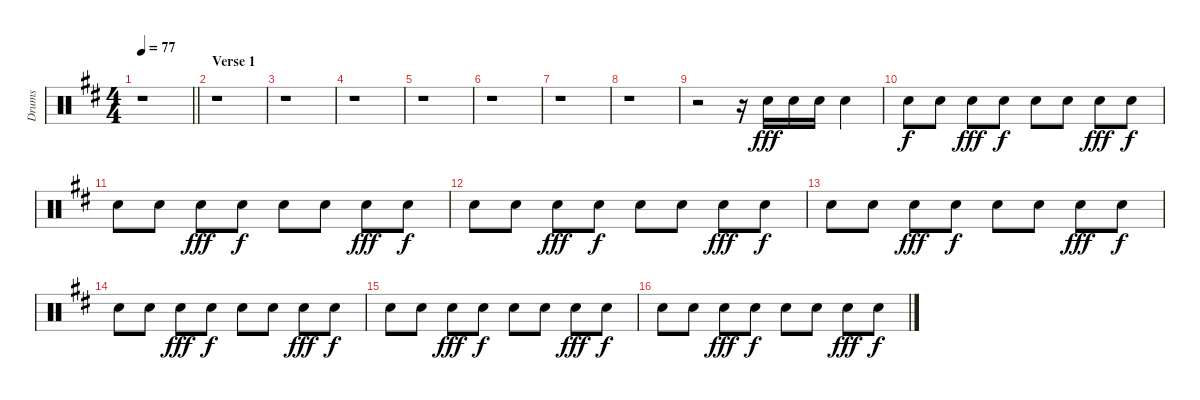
\track ("Drums" "Drums") {instrument percussion}
\staff {score}
\articulation defaults
\ts (4 4)
\tempo 77
\clef neutral
\barLineRight lightlight
\ks d
r.1{dy fff} |
\section ("" "Verse 1")
r.1 |
r.1 |
r.1 |
r.1 |
r.1 |
r.1 |
r.1 |
r.2 r.16 "Snare (hit) 2".16 "Snare (hit) 2".16 "Snare (hit) 2".16 "Snare (hit) 2".4 |
"Snare (hit) 2".8{dy f} "Snare (hit) 2".8 "Snare (hit) 2".8{dy fff} "Snare (hit) 2".8{dy f} "Snare (hit) 2".8 "Snare (hit) 2".8 "Snare (hit) 2".8{dy fff} "Snare (hit) 2".8{dy f} |
"Snare (hit) 2".8 "Snare (hit) 2".8 "Snare (hit) 2".8{dy fff} "Snare (hit) 2".8{dy f} "Snare (hit) 2".8 "Snare (hit) 2".8 "Snare (hit) 2".8{dy fff} "Snare (hit) 2".8{dy f} |
"Snare (hit) 2".8 "Snare (hit) 2".8 "Snare (hit) 2".8{dy fff} "Snare (hit) 2".8{dy f} "Snare (hit) 2".8 "Snare (hit) 2".8 "Snare (hit) 2".8{dy fff} "Snare (hit) 2".8{dy f} |
"Snare (hit) 2".8 "Snare (hit) 2".8 "Snare (hit) 2".8{dy fff} "Snare (hit) 2".8{dy f} "Snare (hit) 2".8 "Snare (hit) 2".8 "Snare (hit) 2".8{dy fff} "Snare (hit) 2".8{dy f} |
"Snare (hit) 2".8 "Snare (hit) 2".8 "Snare (hit) 2".8{dy fff} "Snare (hit) 2".8{dy f} "Snare (hit) 2".8 "Snare (hit) 2".8 "Snare (hit) 2".8{dy fff} "Snare (hit) 2".8{dy f} |
"Snare (hit) 2".8 "Snare (hit) 2".8 "Snare (hit) 2".8{dy fff} "Snare (hit) 2".8{dy f} "Snare (hit) 2".8 "Snare (hit) 2".8 "Snare (hit) 2".8{dy fff} "Snare (hit) 2".8{dy f} |
"Snare (hit) 2".8 "Snare (hit) 2".8 "Snare (hit) 2".8{dy fff} "Snare (hit) 2".8{dy f} "Snare (hit) 2".8 "Snare (hit) 2".8 "Snare (hit) 2".8{dy fff} "Snare (hit) 2".8{dy f}
